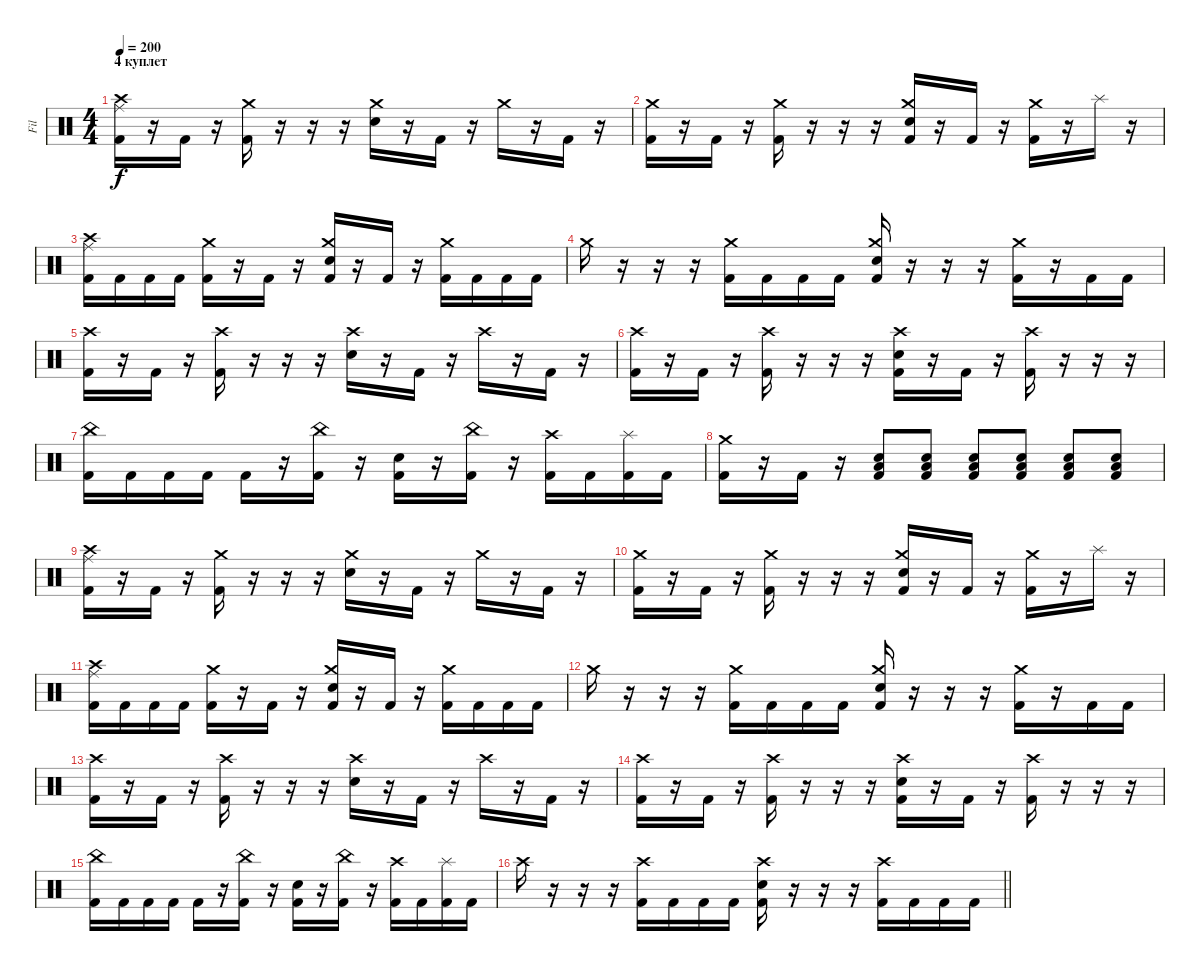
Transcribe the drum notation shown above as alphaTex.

\track ("Fil" "Fil") {instrument percussion}
\staff {score}
\articulation defaults
\ts (4 4)
\section ("" "4 куплет")
\tempo 200
\clef neutral
\ks c
("Crash high (hit)" "Ride (middle)" "Kick (hit) 2").16{dy f} r.16 "Kick (hit) 2".16 r.16 ("Crash medium (hit)" "Kick (hit) 2").16 r.16 r.16 r.16 ("Crash medium (hit)" "Electric Snare (hit)").16 r.16 "Kick (hit) 2".16 r.16 "Crash medium (hit)".16 r.16 "Kick (hit) 2".16 r.16 |
("Crash medium (hit)" "Kick (hit) 2").16 r.16 "Kick (hit) 2".16 r.16 ("Crash medium (hit)" "Kick (hit) 2").16 r.16 r.16 r.16 ("Crash medium (hit)" "Electric Snare (hit)" "Kick (hit) 2").16 r.16 "Kick (hit) 2".16 r.16 ("Crash medium (hit)" "Kick (hit) 2").16 r.16 "Splash (hit)".16 r.16 |
("Crash high (hit)" "Ride (middle)" "Kick (hit) 2").16 "Kick (hit) 2".16 "Kick (hit) 2".16 "Kick (hit) 2".16 ("Crash medium (hit)" "Kick (hit) 2").16 r.16 "Kick (hit) 2".16 r.16 ("Crash medium (hit)" "Electric Snare (hit)" "Kick (hit) 2").16 r.16 "Kick (hit) 2".16 r.16 ("Crash medium (hit)" "Kick (hit) 2").16 "Kick (hit) 2".16 "Kick (hit) 2".16 "Kick (hit) 2".16 |
"Crash medium (hit)".16 r.16 r.16 r.16 ("Crash medium (hit)" "Kick (hit) 2").16 "Kick (hit) 2".16 "Kick (hit) 2".16 "Kick (hit) 2".16 ("Crash medium (hit)" "Electric Snare (hit)" "Kick (hit) 2").16 r.16 r.16 r.16 ("Crash medium (hit)" "Kick (hit) 2").16 r.16 "Kick (hit) 2".16 "Kick (hit) 2".16 |
("Crash high (hit)" "Kick (hit) 2").16 r.16 "Kick (hit) 2".16 r.16 ("Crash high (hit)" "Kick (hit) 2").16 r.16 r.16 r.16 ("Crash high (hit)" "Electric Snare (hit)").16 r.16 "Kick (hit) 2".16 r.16 "Crash high (hit)".16 r.16 "Kick (hit) 2".16 r.16 |
("Crash high (hit)" "Kick (hit) 2").16 r.16 "Kick (hit) 2".16 r.16 ("Crash high (hit)" "Kick (hit) 2").16 r.16 r.16 r.16 ("Crash high (hit)" "Electric Snare (hit)" "Kick (hit) 2").16 r.16 "Kick (hit) 2".16 r.16 ("Crash high (hit)" "Kick (hit) 2").16 r.16 r.16 r.16 |
("China (hit)" "Kick (hit) 2").16 "Kick (hit) 2".16 "Kick (hit) 2".16 "Kick (hit) 2".16 "Kick (hit) 2".16 r.16 ("China (hit)" "Kick (hit) 2").16 r.16 ("Electric Snare (hit)" "Kick (hit) 2").16 r.16 ("China (hit)" "Kick (hit) 2").16 r.16 ("Crash high (hit)" "Kick (hit) 2").16 "Kick (hit) 2".16 ("Splash (hit)" "Kick (hit) 2").16 "Kick (hit) 2".16 |
("Crash medium (hit)" "Kick (hit) 2").16 r.16 "Kick (hit) 2".16 r.16 ("Low Tom (hit)" "Electric Snare (hit)" "Kick (hit) 2").8 ("Low Tom (hit)" "Electric Snare (hit)" "Kick (hit) 2").8 ("Low Tom (hit)" "Electric Snare (hit)" "Kick (hit) 2").8 ("Low Tom (hit)" "Electric Snare (hit)" "Kick (hit) 2").8 ("Low Tom (hit)" "Electric Snare (hit)" "Kick (hit) 2").8 ("Low Tom (hit)" "Electric Snare (hit)" "Kick (hit) 2").8 |
("Crash high (hit)" "Ride (middle)" "Kick (hit) 2").16 r.16 "Kick (hit) 2".16 r.16 ("Crash medium (hit)" "Kick (hit) 2").16 r.16 r.16 r.16 ("Crash medium (hit)" "Electric Snare (hit)").16 r.16 "Kick (hit) 2".16 r.16 "Crash medium (hit)".16 r.16 "Kick (hit) 2".16 r.16 |
("Crash medium (hit)" "Kick (hit) 2").16 r.16 "Kick (hit) 2".16 r.16 ("Crash medium (hit)" "Kick (hit) 2").16 r.16 r.16 r.16 ("Crash medium (hit)" "Electric Snare (hit)" "Kick (hit) 2").16 r.16 "Kick (hit) 2".16 r.16 ("Crash medium (hit)" "Kick (hit) 2").16 r.16 "Splash (hit)".16 r.16 |
("Crash high (hit)" "Ride (middle)" "Kick (hit) 2").16 "Kick (hit) 2".16 "Kick (hit) 2".16 "Kick (hit) 2".16 ("Crash medium (hit)" "Kick (hit) 2").16 r.16 "Kick (hit) 2".16 r.16 ("Crash medium (hit)" "Electric Snare (hit)" "Kick (hit) 2").16 r.16 "Kick (hit) 2".16 r.16 ("Crash medium (hit)" "Kick (hit) 2").16 "Kick (hit) 2".16 "Kick (hit) 2".16 "Kick (hit) 2".16 |
"Crash medium (hit)".16 r.16 r.16 r.16 ("Crash medium (hit)" "Kick (hit) 2").16 "Kick (hit) 2".16 "Kick (hit) 2".16 "Kick (hit) 2".16 ("Crash medium (hit)" "Electric Snare (hit)" "Kick (hit) 2").16 r.16 r.16 r.16 ("Crash medium (hit)" "Kick (hit) 2").16 r.16 "Kick (hit) 2".16 "Kick (hit) 2".16 |
("Crash high (hit)" "Kick (hit) 2").16 r.16 "Kick (hit) 2".16 r.16 ("Crash high (hit)" "Kick (hit) 2").16 r.16 r.16 r.16 ("Crash high (hit)" "Electric Snare (hit)").16 r.16 "Kick (hit) 2".16 r.16 "Crash high (hit)".16 r.16 "Kick (hit) 2".16 r.16 |
("Crash high (hit)" "Kick (hit) 2").16 r.16 "Kick (hit) 2".16 r.16 ("Crash high (hit)" "Kick (hit) 2").16 r.16 r.16 r.16 ("Crash high (hit)" "Electric Snare (hit)" "Kick (hit) 2").16 r.16 "Kick (hit) 2".16 r.16 ("Crash high (hit)" "Kick (hit) 2").16 r.16 r.16 r.16 |
("China (hit)" "Kick (hit) 2").16 "Kick (hit) 2".16 "Kick (hit) 2".16 "Kick (hit) 2".16 "Kick (hit) 2".16 r.16 ("China (hit)" "Kick (hit) 2").16 r.16 ("Electric Snare (hit)" "Kick (hit) 2").16 r.16 ("China (hit)" "Kick (hit) 2").16 r.16 ("Crash high (hit)" "Kick (hit) 2").16 "Kick (hit) 2".16 ("Splash (hit)" "Kick (hit) 2").16 "Kick (hit) 2".16 |
\barLineRight lightlight "Crash high (hit)".16
r.16 r.16 r.16 ("Crash high (hit)" "Kick (hit) 2").16 "Kick (hit) 2".16 "Kick (hit) 2".16 "Kick (hit) 2".16 ("Crash high (hit)" "Electric Snare (hit)" "Kick (hit) 2").16 r.16 r.16 r.16 ("Crash high (hit)" "Kick (hit) 2").16 "Kick (hit) 2".16 "Kick (hit) 2".16 "Kick (hit) 2".16
